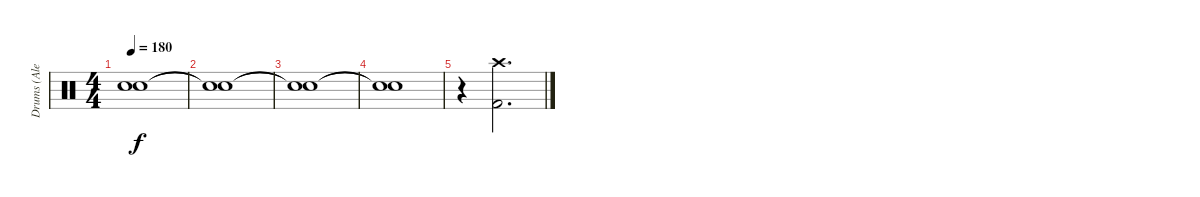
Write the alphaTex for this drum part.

\track ("Drums (Alex Van Halen)" "Drums (Ale") {instrument percussion}
\staff {score}
\articulation defaults
\ts (4 4)
\tempo 180
\clef neutral
\ks c
("Snare (hit)"{t} "Snare (hit)"{t}).1{dy f} |
("Snare (hit)"{t} "Snare (hit)"{t}).1 |
("Snare (hit)"{t} "Snare (hit)"{t}).1 |
("Snare (hit)"{t} "Snare (hit)"{t}).1 |
r.4 ("Kick (hit) 2" "Crash high (hit)").2{d}
